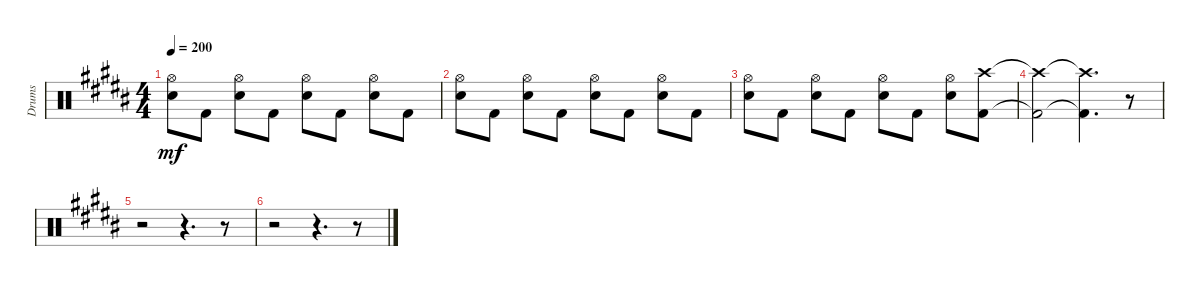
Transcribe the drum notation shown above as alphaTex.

\track ("Drums" "Drums") {instrument percussion}
\staff {score}
\articulation defaults
\ts (4 4)
\tempo 200
\clef neutral
\ks b
("Snare (hit) 2" "Hi-Hat (open)").8{dy mf} "Kick (hit) 2".8 ("Snare (hit) 2" "Hi-Hat (open)").8 "Kick (hit) 2".8 ("Snare (hit) 2" "Hi-Hat (open)").8 "Kick (hit) 2".8 ("Snare (hit) 2" "Hi-Hat (open)").8 "Kick (hit) 2".8 |
("Snare (hit) 2" "Hi-Hat (open)").8 "Kick (hit) 2".8 ("Snare (hit) 2" "Hi-Hat (open)").8 "Kick (hit) 2".8 ("Snare (hit) 2" "Hi-Hat (open)").8 "Kick (hit) 2".8 ("Snare (hit) 2" "Hi-Hat (open)").8 "Kick (hit) 2".8 |
("Snare (hit) 2" "Hi-Hat (open)").8 "Kick (hit) 2".8 ("Snare (hit) 2" "Hi-Hat (open)").8 "Kick (hit) 2".8 ("Snare (hit) 2" "Hi-Hat (open)").8 "Kick (hit) 2".8 ("Snare (hit) 2" "Hi-Hat (open)").8 ("Kick (hit) 2" "Crash high (hit)").8 |
("Kick (hit) 2"{t} "Crash high (hit)"{t}).2 ("Kick (hit) 2"{t} "Crash high (hit)"{t}).4{d} r.8 |
r.2 r.4{d} r.8 |
r.2 r.4{d} r.8
